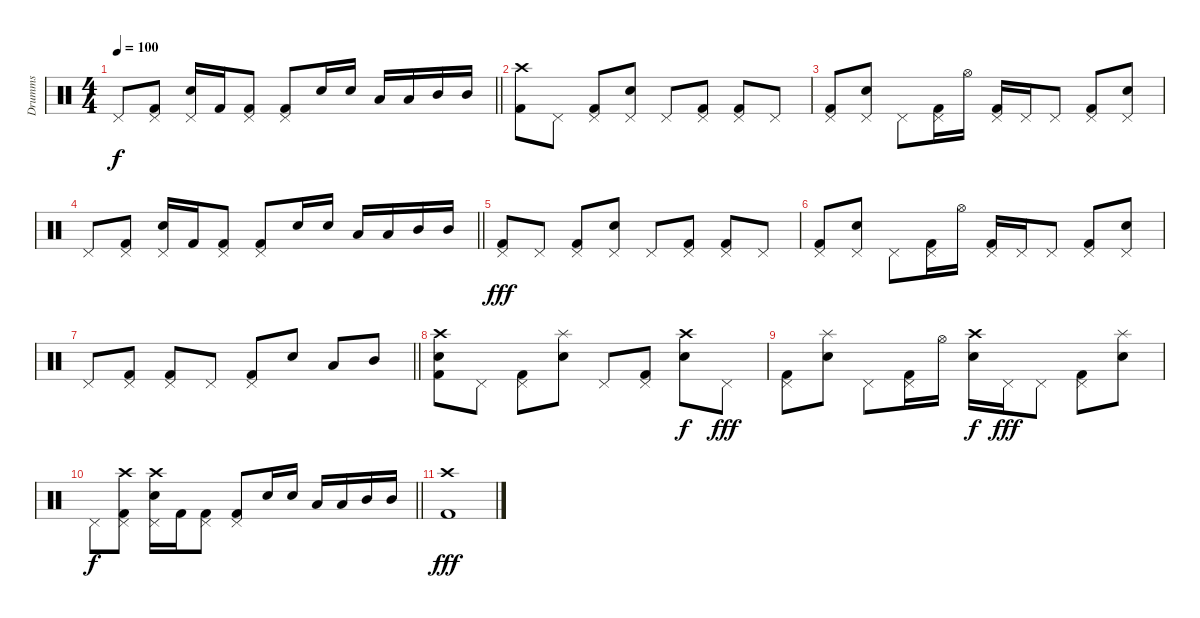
\track ("Drumms" "Drumms") {instrument percussion}
\staff {score}
\articulation defaults
\ts (4 4)
\tempo 100
\clef neutral
\barLineRight lightlight
\ks c "Pedal Hi-Hat (hit)".8{dy f}
("Pedal Hi-Hat (hit)" "Kick (hit) 2").8 ("Pedal Hi-Hat (hit)" "Snare (hit) 2").16 "Kick (hit) 2".16 ("Pedal Hi-Hat (hit)" "Kick (hit) 2").8 ("Pedal Hi-Hat (hit)" "Kick (hit) 2").8 "Snare (hit) 2".16 "Snare (hit) 2".16 "Low Tom (hit)".16 "Low Tom (hit)".16 "Mid Tom (hit)".16 "Mid Tom (hit)".16 |
("Crash high (hit)" "Kick (hit) 2").8 "Pedal Hi-Hat (hit)".8 ("Pedal Hi-Hat (hit)" "Kick (hit) 2").8 ("Pedal Hi-Hat (hit)" "Snare (hit) 2").8 "Pedal Hi-Hat (hit)".8 ("Pedal Hi-Hat (hit)" "Kick (hit) 2").8 ("Pedal Hi-Hat (hit)" "Kick (hit) 2").8 "Pedal Hi-Hat (hit)".8 |
("Pedal Hi-Hat (hit)" "Kick (hit) 2").8 ("Pedal Hi-Hat (hit)" "Snare (hit) 2").8 "Pedal Hi-Hat (hit)".8 ("Pedal Hi-Hat (hit)" "Kick (hit) 2").16 "Hi-Hat (open)".16 ("Pedal Hi-Hat (hit)" "Kick (hit) 2").16 "Pedal Hi-Hat (hit)".16 "Pedal Hi-Hat (hit)".8 ("Pedal Hi-Hat (hit)" "Kick (hit) 2").8 ("Pedal Hi-Hat (hit)" "Snare (hit) 2").8 |
\barLineRight lightlight "Pedal Hi-Hat (hit)".8
("Pedal Hi-Hat (hit)" "Kick (hit) 2").8 ("Pedal Hi-Hat (hit)" "Snare (hit) 2").16 "Kick (hit) 2".16 ("Pedal Hi-Hat (hit)" "Kick (hit) 2").8 ("Pedal Hi-Hat (hit)" "Kick (hit) 2").8 "Snare (hit) 2".16 "Snare (hit) 2".16 "Low Tom (hit)".16 "Low Tom (hit)".16 "Mid Tom (hit)".16 "Mid Tom (hit)".16 |
("Pedal Hi-Hat (hit)" "Kick (hit) 2").8{dy fff} "Pedal Hi-Hat (hit)".8 ("Pedal Hi-Hat (hit)" "Kick (hit) 2").8 ("Pedal Hi-Hat (hit)" "Snare (hit) 2").8 "Pedal Hi-Hat (hit)".8 ("Pedal Hi-Hat (hit)" "Kick (hit) 2").8 ("Pedal Hi-Hat (hit)" "Kick (hit) 2").8 "Pedal Hi-Hat (hit)".8 |
("Pedal Hi-Hat (hit)" "Kick (hit) 2").8 ("Pedal Hi-Hat (hit)" "Snare (hit) 2").8 "Pedal Hi-Hat (hit)".8 ("Pedal Hi-Hat (hit)" "Kick (hit) 2").16 "Hi-Hat (open)".16 ("Pedal Hi-Hat (hit)" "Kick (hit) 2").16 "Pedal Hi-Hat (hit)".16 "Pedal Hi-Hat (hit)".8 ("Pedal Hi-Hat (hit)" "Kick (hit) 2").8 ("Pedal Hi-Hat (hit)" "Snare (hit) 2").8 |
\barLineRight lightlight "Pedal Hi-Hat (hit)".8
("Pedal Hi-Hat (hit)" "Kick (hit) 2").8 ("Pedal Hi-Hat (hit)" "Kick (hit) 2").8 "Pedal Hi-Hat (hit)".8 ("Pedal Hi-Hat (hit)" "Kick (hit) 2").8 "Snare (hit) 2".8 "Low Tom (hit)".8 "Mid Tom (hit)".8 |
("Crash high (hit)" "Snare (hit) 2" "Kick (hit) 2").8 "Pedal Hi-Hat (hit)".8 ("Pedal Hi-Hat (hit)" "Kick (hit) 2").8 ("Splash (hit)" "Snare (hit) 2").8 "Pedal Hi-Hat (hit)".8 ("Pedal Hi-Hat (hit)" "Kick (hit) 2").8 ("Crash high (hit)" "Snare (hit) 2").8{dy f} "Pedal Hi-Hat (hit)".8{dy fff} |
("Pedal Hi-Hat (hit)" "Kick (hit) 2").8 ("Splash (hit)" "Snare (hit) 2").8 "Pedal Hi-Hat (hit)".8 ("Pedal Hi-Hat (hit)" "Kick (hit) 2").16 "Hi-Hat (open)".16 ("Crash high (hit)" "Snare (hit) 2").16{dy f} "Pedal Hi-Hat (hit)".16{dy fff} "Pedal Hi-Hat (hit)".8 ("Pedal Hi-Hat (hit)" "Kick (hit) 2").8 ("Splash (hit)" "Snare (hit) 2").8 |
\barLineRight lightlight "Pedal Hi-Hat (hit)".8{dy f}
("Crash high (hit)" "Pedal Hi-Hat (hit)" "Kick (hit) 2").8 ("Crash high (hit)" "Pedal Hi-Hat (hit)" "Snare (hit) 2").16 "Kick (hit) 2".16 ("Pedal Hi-Hat (hit)" "Kick (hit) 2").8 ("Pedal Hi-Hat (hit)" "Kick (hit) 2").8 "Snare (hit) 2".16 "Snare (hit) 2".16 "Low Tom (hit)".16 "Low Tom (hit)".16 "Mid Tom (hit)".16 "Mid Tom (hit)".16 |
("Crash high (hit)" "Kick (hit) 2").1{dy fff}
